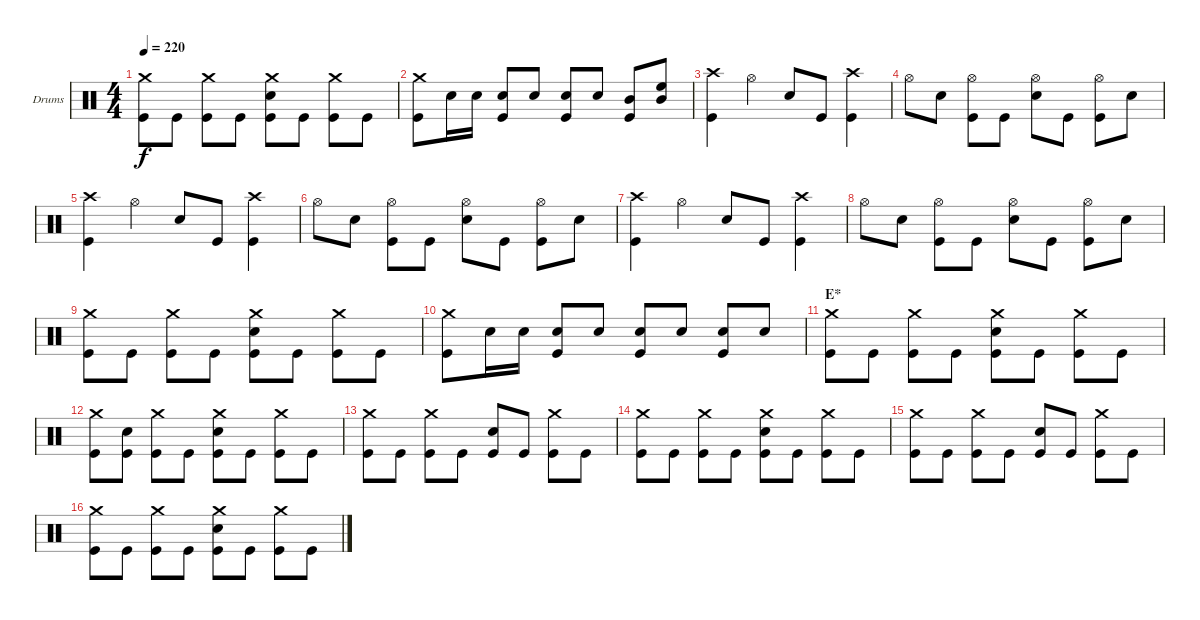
\bracketExtendMode groupsimilarinstruments
\firstSystemTrackNameOrientation horizontal
\otherSystemsTrackNameOrientation horizontal
\track ("Drumkit" "Drums") {instrument percussion}
\staff {score}
\articulation defaults
\ts (4 4)
\tempo 220
\clef neutral
\scale
0.463768
\ks c
("Crash medium (hit)" "Kick (hit)").8{dy f} "Kick (hit)".8 ("Crash medium (hit)" "Kick (hit)").8 "Kick (hit)".8 ("Crash medium (hit)" "Snare (hit) 2" "Kick (hit)").8 "Kick (hit)".8 ("Crash medium (hit)" "Kick (hit)").8 "Kick (hit)".8 |
\scale
0.536232 ("Crash medium (hit)" "Kick (hit)").8 "Snare (hit) 2".16 "Snare (hit) 2".16 ("Snare (hit) 2" "Kick (hit)").8 "Snare (hit) 2".8 ("Snare (hit) 2" "Kick (hit)").8 "Snare (hit) 2".8 ("Kick (hit)" "Mid Tom (hit)").8 ("Mid Tom (hit)" "High Floor Tom (hit)").8 |
\scale
0.448276 ("Crash high (hit)" "Kick (hit)").4 "Hi-Hat (open)".4 "Snare (hit) 2".8 "Kick (hit)".8 ("Crash high (hit)" "Kick (hit)").4 |
\scale
0.551724 "Hi-Hat (open)".8 "Snare (hit) 2".8 ("Hi-Hat (open)" "Kick (hit)").8 "Kick (hit)".8 ("Hi-Hat (open)" "Snare (hit) 2").8 "Kick (hit)".8 ("Hi-Hat (open)" "Kick (hit)").8 "Snare (hit) 2".8 |
\scale
0.448276 ("Crash high (hit)" "Kick (hit)").4 "Hi-Hat (open)".4 "Snare (hit) 2".8 "Kick (hit)".8 ("Crash high (hit)" "Kick (hit)").4 |
\scale
0.551724 "Hi-Hat (open)".8 "Snare (hit) 2".8 ("Hi-Hat (open)" "Kick (hit)").8 "Kick (hit)".8 ("Hi-Hat (open)" "Snare (hit) 2").8 "Kick (hit)".8 ("Hi-Hat (open)" "Kick (hit)").8 "Snare (hit) 2".8 |
\scale
0.448276 ("Crash high (hit)" "Kick (hit)").4 "Hi-Hat (open)".4 "Snare (hit) 2".8 "Kick (hit)".8 ("Crash high (hit)" "Kick (hit)").4 |
\scale
0.551724 "Hi-Hat (open)".8 "Snare (hit) 2".8 ("Hi-Hat (open)" "Kick (hit)").8 "Kick (hit)".8 ("Hi-Hat (open)" "Snare (hit) 2").8 "Kick (hit)".8 ("Hi-Hat (open)" "Kick (hit)").8 "Snare (hit) 2".8 |
\scale
0.463768 ("Crash medium (hit)" "Kick (hit)").8 "Kick (hit)".8 ("Crash medium (hit)" "Kick (hit)").8 "Kick (hit)".8 ("Crash medium (hit)" "Snare (hit) 2" "Kick (hit)").8 "Kick (hit)".8 ("Crash medium (hit)" "Kick (hit)").8 "Kick (hit)".8 |
\scale
0.536232 ("Crash medium (hit)" "Kick (hit)").8 "Snare (hit) 2".16 "Snare (hit) 2".16 ("Snare (hit) 2" "Kick (hit)").8 "Snare (hit) 2".8 ("Snare (hit) 2" "Kick (hit)").8 "Snare (hit) 2".8 ("Snare (hit) 2" "Kick (hit)").8 "Snare (hit) 2".8 |
\section ("" "E*")
\scale
0.5 ("Crash medium (hit)" "Kick (hit)").8 "Kick (hit)".8 ("Crash medium (hit)" "Kick (hit)").8 "Kick (hit)".8 ("Crash medium (hit)" "Snare (hit) 2" "Kick (hit)").8 "Kick (hit)".8 ("Crash medium (hit)" "Kick (hit)").8 "Kick (hit)".8 |
\scale
0.5 ("Crash medium (hit)" "Kick (hit)").8 ("Snare (hit) 2" "Kick (hit)").8 ("Crash medium (hit)" "Kick (hit)").8 "Kick (hit)".8 ("Crash medium (hit)" "Snare (hit) 2" "Kick (hit)").8 "Kick (hit)".8 ("Crash medium (hit)" "Kick (hit)").8 "Kick (hit)".8 |
\scale
0.5 ("Crash medium (hit)" "Kick (hit)").8 "Kick (hit)".8 ("Crash medium (hit)" "Kick (hit)").8 "Kick (hit)".8 ("Snare (hit) 2" "Kick (hit)").8 "Kick (hit)".8 ("Crash medium (hit)" "Kick (hit)").8 "Kick (hit)".8 |
\scale
0.5 ("Crash medium (hit)" "Kick (hit)").8 "Kick (hit)".8 ("Crash medium (hit)" "Kick (hit)").8 "Kick (hit)".8 ("Crash medium (hit)" "Snare (hit) 2" "Kick (hit)").8 "Kick (hit)".8 ("Crash medium (hit)" "Kick (hit)").8 "Kick (hit)".8 |
\scale
0.5 ("Crash medium (hit)" "Kick (hit)").8 "Kick (hit)".8 ("Crash medium (hit)" "Kick (hit)").8 "Kick (hit)".8 ("Snare (hit) 2" "Kick (hit)").8 "Kick (hit)".8 ("Crash medium (hit)" "Kick (hit)").8 "Kick (hit)".8 |
\scale
0.5 ("Crash medium (hit)" "Kick (hit)").8 "Kick (hit)".8 ("Crash medium (hit)" "Kick (hit)").8 "Kick (hit)".8 ("Crash medium (hit)" "Snare (hit) 2" "Kick (hit)").8 "Kick (hit)".8 ("Crash medium (hit)" "Kick (hit)").8 "Kick (hit)".8
